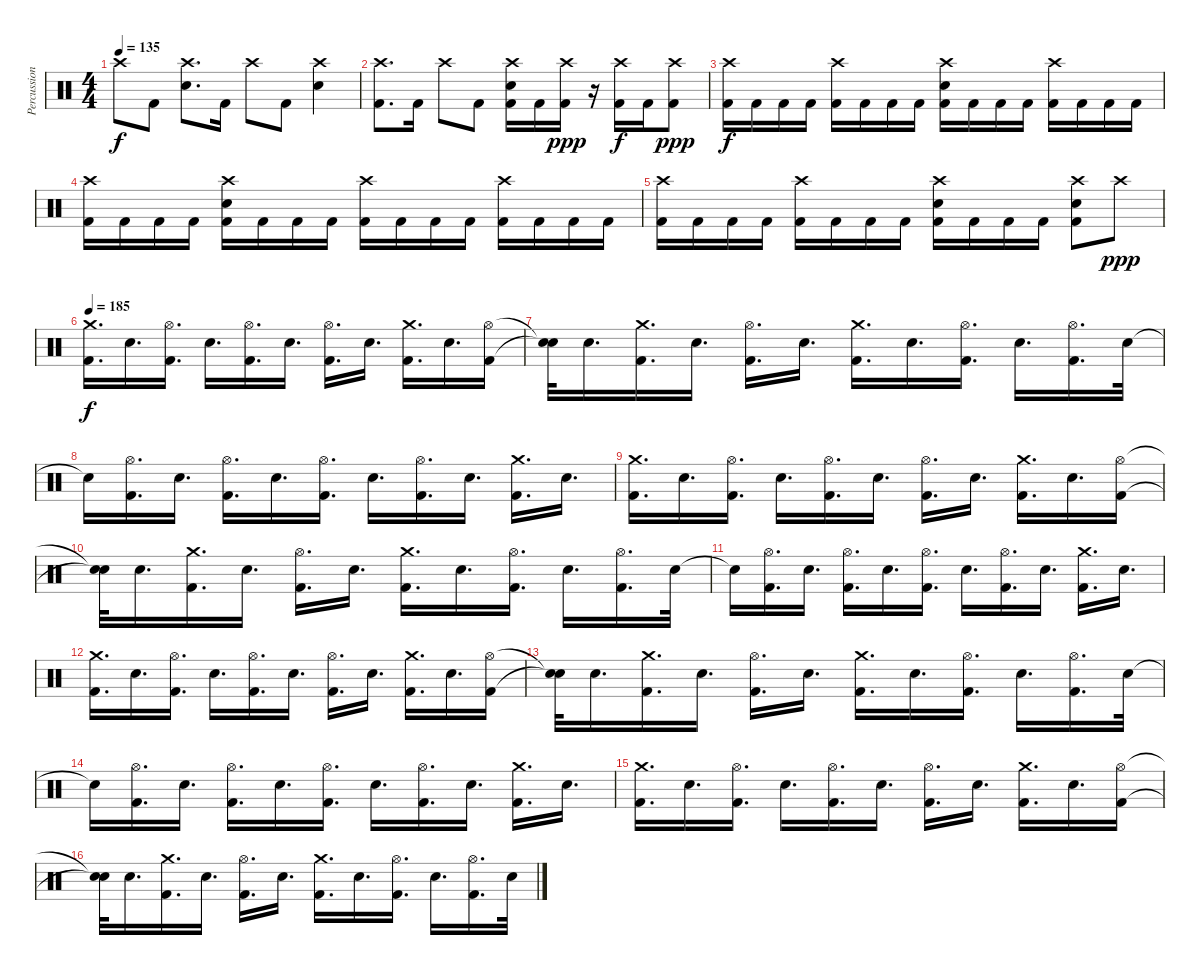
\track ("Percussion" "Percussion") {instrument percussion}
\staff {score}
\articulation defaults
\ts (4 4)
\tempo 135
\clef neutral
\ks c "Crash high (hit)".8{dy f} "Kick (hit) 2".8
("Crash high (hit)" "Electric Snare (hit)").8{d} "Kick (hit) 2".16 "Crash high (hit)".8 "Kick (hit) 2".8 ("Crash high (hit)" "Electric Snare (hit)").4 |
("Crash high (hit)" "Kick (hit) 2").8{d} "Kick (hit) 2".16 "Crash high (hit)".8 "Kick (hit) 2".8 ("Crash high (hit)" "Electric Snare (hit)" "Kick (hit) 2").16 "Kick (hit) 2".16 ("Crash high (hit)" "Kick (hit) 2").16{dy ppp} r.16 ("Crash high (hit)" "Kick (hit) 2").16{dy f} "Kick (hit) 2".16 ("Crash high (hit)" "Kick (hit) 2").8{dy ppp} |
("Crash high (hit)" "Kick (hit) 2").16{dy f} "Kick (hit) 2".16 "Kick (hit) 2".16 "Kick (hit) 2".16 ("Crash high (hit)" "Kick (hit) 2").16 "Kick (hit) 2".16 "Kick (hit) 2".16 "Kick (hit) 2".16 ("Crash high (hit)" "Electric Snare (hit)" "Kick (hit) 2").16 "Kick (hit) 2".16 "Kick (hit) 2".16 "Kick (hit) 2".16 ("Crash high (hit)" "Kick (hit) 2").16 "Kick (hit) 2".16 "Kick (hit) 2".16 "Kick (hit) 2".16 |
("Crash high (hit)" "Kick (hit) 2").16 "Kick (hit) 2".16 "Kick (hit) 2".16 "Kick (hit) 2".16 ("Crash high (hit)" "Electric Snare (hit)" "Kick (hit) 2").16 "Kick (hit) 2".16 "Kick (hit) 2".16 "Kick (hit) 2".16 ("Crash high (hit)" "Kick (hit) 2").16 "Kick (hit) 2".16 "Kick (hit) 2".16 "Kick (hit) 2".16 ("Crash high (hit)" "Kick (hit) 2").16 "Kick (hit) 2".16 "Kick (hit) 2".16 "Kick (hit) 2".16 |
("Crash high (hit)" "Kick (hit) 2").16 "Kick (hit) 2".16 "Kick (hit) 2".16 "Kick (hit) 2".16 ("Crash high (hit)" "Kick (hit) 2").16 "Kick (hit) 2".16 "Kick (hit) 2".16 "Kick (hit) 2".16 ("Crash high (hit)" "Electric Snare (hit)" "Kick (hit) 2").16 "Kick (hit) 2".16 "Kick (hit) 2".16 "Kick (hit) 2".16 ("Crash high (hit)" "Electric Snare (hit)" "Kick (hit) 2").8 "Crash high (hit)".8{dy ppp} |
\tempo 185
("Crash medium (hit)" "Kick (hit) 2").16{d dy f} "Electric Snare (hit)".16{d} ("Hi-Hat (open)" "Kick (hit) 2").16{d} "Electric Snare (hit)".16{d} ("Hi-Hat (open)" "Kick (hit) 2").16{d} "Electric Snare (hit)".16{d} ("Hi-Hat (open)" "Kick (hit) 2").16{d} "Electric Snare (hit)".16{d} ("Crash medium (hit)" "Kick (hit) 2").16{d} "Electric Snare (hit)".16{d} ("Hi-Hat (open)" "Kick (hit) 2").16 |
("Snare (hit)"{t} "Snare (hit)"{t}).32 "Electric Snare (hit)".16{d} ("Crash medium (hit)" "Kick (hit) 2").16{d} "Electric Snare (hit)".16{d} ("Hi-Hat (open)" "Kick (hit) 2").16{d} "Electric Snare (hit)".16{d} ("Crash medium (hit)" "Kick (hit) 2").16{d} "Electric Snare (hit)".16{d} ("Hi-Hat (open)" "Kick (hit) 2").16{d} "Electric Snare (hit)".16{d} ("Hi-Hat (open)" "Kick (hit) 2").16{d} "Electric Snare (hit)".32 |
"Snare (hit)"{t}.16 ("Hi-Hat (open)" "Kick (hit) 2").16{d} "Electric Snare (hit)".16{d} ("Hi-Hat (open)" "Kick (hit) 2").16{d} "Electric Snare (hit)".16{d} ("Hi-Hat (open)" "Kick (hit) 2").16{d} "Electric Snare (hit)".16{d} ("Hi-Hat (open)" "Kick (hit) 2").16{d} "Electric Snare (hit)".16{d} ("Crash medium (hit)" "Kick (hit) 2").16{d} "Electric Snare (hit)".16{d} |
("Crash medium (hit)" "Kick (hit) 2").16{d} "Electric Snare (hit)".16{d} ("Hi-Hat (open)" "Kick (hit) 2").16{d} "Electric Snare (hit)".16{d} ("Hi-Hat (open)" "Kick (hit) 2").16{d} "Electric Snare (hit)".16{d} ("Hi-Hat (open)" "Kick (hit) 2").16{d} "Electric Snare (hit)".16{d} ("Crash medium (hit)" "Kick (hit) 2").16{d} "Electric Snare (hit)".16{d} ("Hi-Hat (open)" "Kick (hit) 2").16 |
("Snare (hit)"{t} "Snare (hit)"{t}).32 "Electric Snare (hit)".16{d} ("Crash medium (hit)" "Kick (hit) 2").16{d} "Electric Snare (hit)".16{d} ("Hi-Hat (open)" "Kick (hit) 2").16{d} "Electric Snare (hit)".16{d} ("Crash medium (hit)" "Kick (hit) 2").16{d} "Electric Snare (hit)".16{d} ("Hi-Hat (open)" "Kick (hit) 2").16{d} "Electric Snare (hit)".16{d} ("Hi-Hat (open)" "Kick (hit) 2").16{d} "Electric Snare (hit)".32 |
"Snare (hit)"{t}.16 ("Hi-Hat (open)" "Kick (hit) 2").16{d} "Electric Snare (hit)".16{d} ("Hi-Hat (open)" "Kick (hit) 2").16{d} "Electric Snare (hit)".16{d} ("Hi-Hat (open)" "Kick (hit) 2").16{d} "Electric Snare (hit)".16{d} ("Hi-Hat (open)" "Kick (hit) 2").16{d} "Electric Snare (hit)".16{d} ("Crash medium (hit)" "Kick (hit) 2").16{d} "Electric Snare (hit)".16{d} |
("Crash medium (hit)" "Kick (hit) 2").16{d} "Electric Snare (hit)".16{d} ("Hi-Hat (open)" "Kick (hit) 2").16{d} "Electric Snare (hit)".16{d} ("Hi-Hat (open)" "Kick (hit) 2").16{d} "Electric Snare (hit)".16{d} ("Hi-Hat (open)" "Kick (hit) 2").16{d} "Electric Snare (hit)".16{d} ("Crash medium (hit)" "Kick (hit) 2").16{d} "Electric Snare (hit)".16{d} ("Hi-Hat (open)" "Kick (hit) 2").16 |
("Snare (hit)"{t} "Snare (hit)"{t}).32 "Electric Snare (hit)".16{d} ("Crash medium (hit)" "Kick (hit) 2").16{d} "Electric Snare (hit)".16{d} ("Hi-Hat (open)" "Kick (hit) 2").16{d} "Electric Snare (hit)".16{d} ("Crash medium (hit)" "Kick (hit) 2").16{d} "Electric Snare (hit)".16{d} ("Hi-Hat (open)" "Kick (hit) 2").16{d} "Electric Snare (hit)".16{d} ("Hi-Hat (open)" "Kick (hit) 2").16{d} "Electric Snare (hit)".32 |
"Snare (hit)"{t}.16 ("Hi-Hat (open)" "Kick (hit) 2").16{d} "Electric Snare (hit)".16{d} ("Hi-Hat (open)" "Kick (hit) 2").16{d} "Electric Snare (hit)".16{d} ("Hi-Hat (open)" "Kick (hit) 2").16{d} "Electric Snare (hit)".16{d} ("Hi-Hat (open)" "Kick (hit) 2").16{d} "Electric Snare (hit)".16{d} ("Crash medium (hit)" "Kick (hit) 2").16{d} "Electric Snare (hit)".16{d} |
("Crash medium (hit)" "Kick (hit) 2").16{d} "Electric Snare (hit)".16{d} ("Hi-Hat (open)" "Kick (hit) 2").16{d} "Electric Snare (hit)".16{d} ("Hi-Hat (open)" "Kick (hit) 2").16{d} "Electric Snare (hit)".16{d} ("Hi-Hat (open)" "Kick (hit) 2").16{d} "Electric Snare (hit)".16{d} ("Crash medium (hit)" "Kick (hit) 2").16{d} "Electric Snare (hit)".16{d} ("Hi-Hat (open)" "Kick (hit) 2").16 |
("Snare (hit)"{t} "Snare (hit)"{t}).32 "Electric Snare (hit)".16{d} ("Crash medium (hit)" "Kick (hit) 2").16{d} "Electric Snare (hit)".16{d} ("Hi-Hat (open)" "Kick (hit) 2").16{d} "Electric Snare (hit)".16{d} ("Crash medium (hit)" "Kick (hit) 2").16{d} "Electric Snare (hit)".16{d} ("Hi-Hat (open)" "Kick (hit) 2").16{d} "Electric Snare (hit)".16{d} ("Hi-Hat (open)" "Kick (hit) 2").16{d} "Electric Snare (hit)".32
